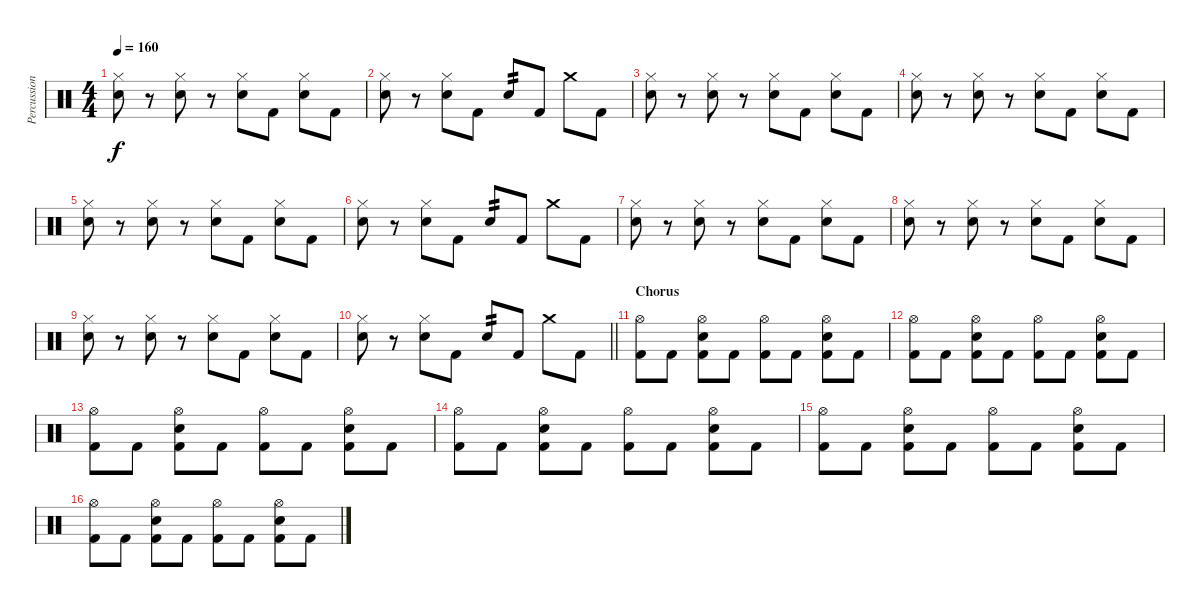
\track ("Percussion" "Percussion") {instrument percussion}
\staff {score}
\articulation defaults
\ts (4 4)
\tempo 160
\clef neutral
\ks c
("Hi-Hat (closed)" "Snare (hit) 2").8{dy f} r.8 ("Hi-Hat (closed)" "Snare (hit) 2").8 r.8 ("Hi-Hat (closed)" "Snare (hit) 2").8 "Kick (hit) 2".8 ("Hi-Hat (closed)" "Snare (hit) 2").8 "Kick (hit) 2".8 |
("Hi-Hat (closed)" "Snare (hit) 2").8 r.8 ("Hi-Hat (closed)" "Snare (hit) 2").8 "Kick (hit) 2".8 "Snare (hit) 2".8{tp 2} "Kick (hit) 2".8 "Crash medium (hit)".8 "Kick (hit) 2".8 |
("Hi-Hat (closed)" "Snare (hit) 2").8 r.8 ("Hi-Hat (closed)" "Snare (hit) 2").8 r.8 ("Hi-Hat (closed)" "Snare (hit) 2").8 "Kick (hit) 2".8 ("Hi-Hat (closed)" "Snare (hit) 2").8 "Kick (hit) 2".8 |
("Hi-Hat (closed)" "Snare (hit) 2").8 r.8 ("Hi-Hat (closed)" "Snare (hit) 2").8 r.8 ("Hi-Hat (closed)" "Snare (hit) 2").8 "Kick (hit) 2".8 ("Hi-Hat (closed)" "Snare (hit) 2").8 "Kick (hit) 2".8 |
("Hi-Hat (closed)" "Snare (hit) 2").8 r.8 ("Hi-Hat (closed)" "Snare (hit) 2").8 r.8 ("Hi-Hat (closed)" "Snare (hit) 2").8 "Kick (hit) 2".8 ("Hi-Hat (closed)" "Snare (hit) 2").8 "Kick (hit) 2".8 |
("Hi-Hat (closed)" "Snare (hit) 2").8 r.8 ("Hi-Hat (closed)" "Snare (hit) 2").8 "Kick (hit) 2".8 "Snare (hit) 2".8{tp 2} "Kick (hit) 2".8 "Crash medium (hit)".8 "Kick (hit) 2".8 |
("Hi-Hat (closed)" "Snare (hit) 2").8 r.8 ("Hi-Hat (closed)" "Snare (hit) 2").8 r.8 ("Hi-Hat (closed)" "Snare (hit) 2").8 "Kick (hit) 2".8 ("Hi-Hat (closed)" "Snare (hit) 2").8 "Kick (hit) 2".8 |
("Hi-Hat (closed)" "Snare (hit) 2").8 r.8 ("Hi-Hat (closed)" "Snare (hit) 2").8 r.8 ("Hi-Hat (closed)" "Snare (hit) 2").8 "Kick (hit) 2".8 ("Hi-Hat (closed)" "Snare (hit) 2").8 "Kick (hit) 2".8 |
("Hi-Hat (closed)" "Snare (hit) 2").8 r.8 ("Hi-Hat (closed)" "Snare (hit) 2").8 r.8 ("Hi-Hat (closed)" "Snare (hit) 2").8 "Kick (hit) 2".8 ("Hi-Hat (closed)" "Snare (hit) 2").8 "Kick (hit) 2".8 |
\barLineRight lightlight
("Hi-Hat (closed)" "Snare (hit) 2").8 r.8 ("Hi-Hat (closed)" "Snare (hit) 2").8 "Kick (hit) 2".8 "Snare (hit) 2".8{tp 2} "Kick (hit) 2".8 "Crash medium (hit)".8 "Kick (hit) 2".8 |
\section ("" "Chorus")
("Hi-Hat (open)" "Kick (hit) 2").8 "Kick (hit) 2".8 ("Hi-Hat (open)" "Snare (hit) 2" "Kick (hit) 2").8 "Kick (hit) 2".8 ("Hi-Hat (open)" "Kick (hit) 2").8 "Kick (hit) 2".8 ("Hi-Hat (open)" "Snare (hit) 2" "Kick (hit) 2").8 "Kick (hit) 2".8 |
("Hi-Hat (open)" "Kick (hit) 2").8 "Kick (hit) 2".8 ("Hi-Hat (open)" "Snare (hit) 2" "Kick (hit) 2").8 "Kick (hit) 2".8 ("Hi-Hat (open)" "Kick (hit) 2").8 "Kick (hit) 2".8 ("Hi-Hat (open)" "Snare (hit) 2" "Kick (hit) 2").8 "Kick (hit) 2".8 |
("Hi-Hat (open)" "Kick (hit) 2").8 "Kick (hit) 2".8 ("Hi-Hat (open)" "Snare (hit) 2" "Kick (hit) 2").8 "Kick (hit) 2".8 ("Hi-Hat (open)" "Kick (hit) 2").8 "Kick (hit) 2".8 ("Hi-Hat (open)" "Snare (hit) 2" "Kick (hit) 2").8 "Kick (hit) 2".8 |
("Hi-Hat (open)" "Kick (hit) 2").8 "Kick (hit) 2".8 ("Hi-Hat (open)" "Snare (hit) 2" "Kick (hit) 2").8 "Kick (hit) 2".8 ("Hi-Hat (open)" "Kick (hit) 2").8 "Kick (hit) 2".8 ("Hi-Hat (open)" "Snare (hit) 2" "Kick (hit) 2").8 "Kick (hit) 2".8 |
("Hi-Hat (open)" "Kick (hit) 2").8 "Kick (hit) 2".8 ("Hi-Hat (open)" "Snare (hit) 2" "Kick (hit) 2").8 "Kick (hit) 2".8 ("Hi-Hat (open)" "Kick (hit) 2").8 "Kick (hit) 2".8 ("Hi-Hat (open)" "Snare (hit) 2" "Kick (hit) 2").8 "Kick (hit) 2".8 |
("Hi-Hat (open)" "Kick (hit) 2").8 "Kick (hit) 2".8 ("Hi-Hat (open)" "Snare (hit) 2" "Kick (hit) 2").8 "Kick (hit) 2".8 ("Hi-Hat (open)" "Kick (hit) 2").8 "Kick (hit) 2".8 ("Hi-Hat (open)" "Snare (hit) 2" "Kick (hit) 2").8 "Kick (hit) 2".8
